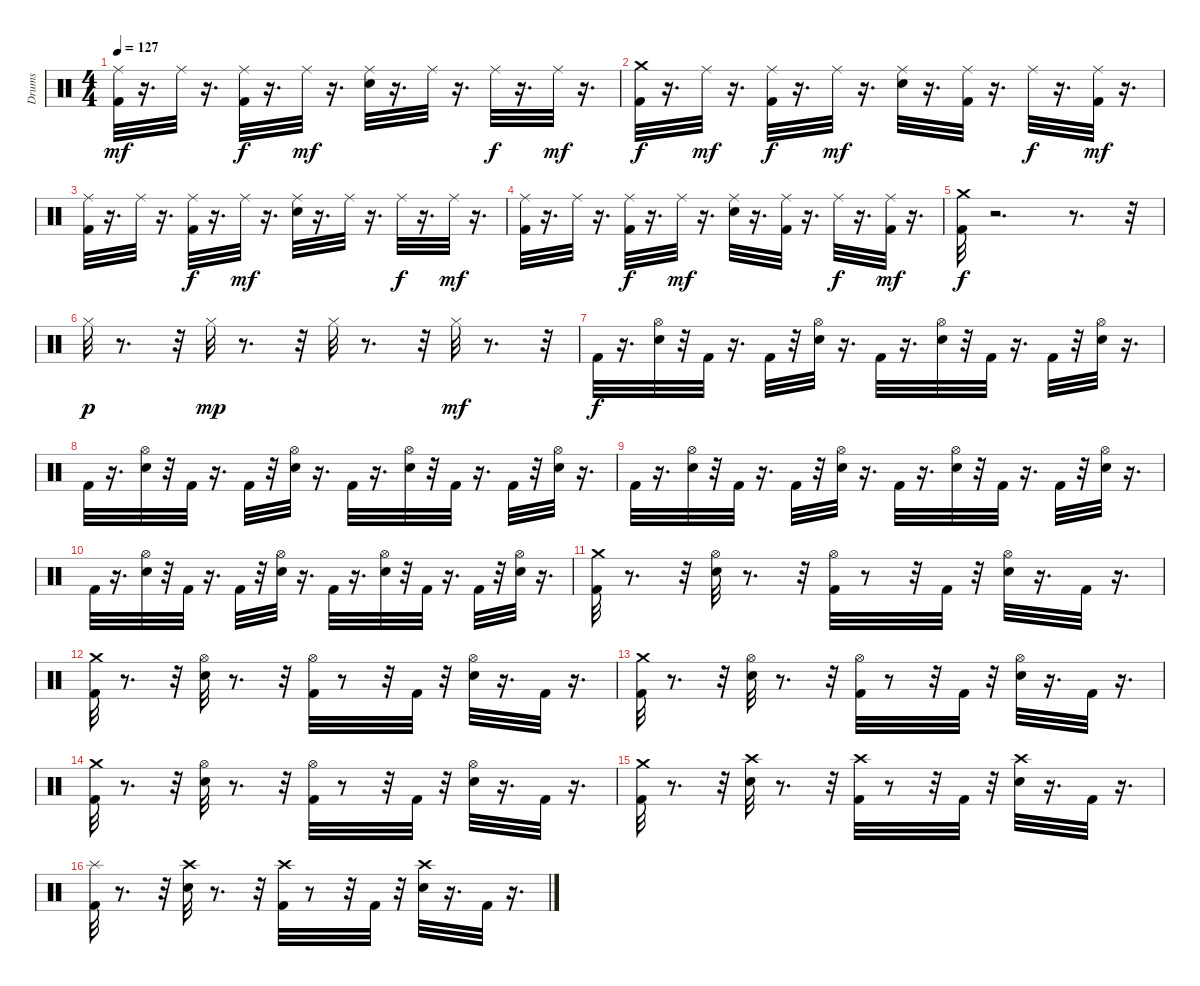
\track ("Drums" "Drums") {instrument percussion}
\staff {score}
\articulation defaults
\ts (4 4)
\tempo 127
\clef neutral
\ks c
("Ride (middle)" "Kick (hit) 2").32{dy mf} r.16{d} "Ride (middle)".32 r.16{d} ("Ride (middle)" "Kick (hit) 2").32{dy f} r.16{d} "Ride (middle)".32{dy mf} r.16{d} ("Ride (middle)" "Snare (hit) 2").32 r.16{d} "Ride (middle)".32 r.16{d} "Ride (middle)".32{dy f} r.16{d} "Ride (middle)".32{dy mf} r.16{d} |
("Kick (hit) 2" "Crash medium (hit)").32{dy f} r.16{d} "Ride (middle)".32{dy mf} r.16{d} ("Ride (middle)" "Kick (hit) 2").32{dy f} r.16{d} "Ride (middle)".32{dy mf} r.16{d} ("Ride (middle)" "Snare (hit) 2").32 r.16{d} ("Ride (middle)" "Kick (hit) 2").32 r.16{d} "Ride (middle)".32{dy f} r.16{d} ("Ride (middle)" "Kick (hit) 2").32{dy mf} r.16{d} |
("Ride (middle)" "Kick (hit) 2").32 r.16{d} "Ride (middle)".32 r.16{d} ("Ride (middle)" "Kick (hit) 2").32{dy f} r.16{d} "Ride (middle)".32{dy mf} r.16{d} ("Ride (middle)" "Snare (hit) 2").32 r.16{d} "Ride (middle)".32 r.16{d} "Ride (middle)".32{dy f} r.16{d} "Ride (middle)".32{dy mf} r.16{d} |
("Ride (middle)" "Kick (hit) 2").32 r.16{d} "Ride (middle)".32 r.16{d} ("Ride (middle)" "Kick (hit) 2").32{dy f} r.16{d} "Ride (middle)".32{dy mf} r.16{d} ("Ride (middle)" "Snare (hit) 2").32 r.16{d} ("Ride (middle)" "Kick (hit) 2").32 r.16{d} "Ride (middle)".32{dy f} r.16{d} ("Ride (middle)" "Kick (hit) 2").32{dy mf} r.16{d} |
("Kick (hit) 2" "Crash medium (hit)").32{dy f} r.2{d} r.8{d} r.32 |
"Hi-Hat (closed)".32{dy p} r.8{d} r.32 "Hi-Hat (closed)".32{dy mp} r.8{d} r.32 "Hi-Hat (closed)".32 r.8{d} r.32 "Hi-Hat (closed)".32{dy mf} r.8{d} r.32 |
"Kick (hit) 2".32{dy f} r.16{d} ("Snare (hit) 2" "Hi-Hat (open)").32 r.32 "Kick (hit) 2".32 r.16{d} "Kick (hit) 2".32 r.32 ("Snare (hit) 2" "Hi-Hat (open)").32 r.16{d} "Kick (hit) 2".32 r.16{d} ("Snare (hit) 2" "Hi-Hat (open)").32 r.32 "Kick (hit) 2".32 r.16{d} "Kick (hit) 2".32 r.32 ("Snare (hit) 2" "Hi-Hat (open)").32 r.16{d} |
"Kick (hit) 2".32 r.16{d} ("Snare (hit) 2" "Hi-Hat (open)").32 r.32 "Kick (hit) 2".32 r.16{d} "Kick (hit) 2".32 r.32 ("Snare (hit) 2" "Hi-Hat (open)").32 r.16{d} "Kick (hit) 2".32 r.16{d} ("Snare (hit) 2" "Hi-Hat (open)").32 r.32 "Kick (hit) 2".32 r.16{d} "Kick (hit) 2".32 r.32 ("Snare (hit) 2" "Hi-Hat (open)").32 r.16{d} |
"Kick (hit) 2".32 r.16{d} ("Snare (hit) 2" "Hi-Hat (open)").32 r.32 "Kick (hit) 2".32 r.16{d} "Kick (hit) 2".32 r.32 ("Snare (hit) 2" "Hi-Hat (open)").32 r.16{d} "Kick (hit) 2".32 r.16{d} ("Snare (hit) 2" "Hi-Hat (open)").32 r.32 "Kick (hit) 2".32 r.16{d} "Kick (hit) 2".32 r.32 ("Snare (hit) 2" "Hi-Hat (open)").32 r.16{d} |
"Kick (hit) 2".32 r.16{d} ("Snare (hit) 2" "Hi-Hat (open)").32 r.32 "Kick (hit) 2".32 r.16{d} "Kick (hit) 2".32 r.32 ("Snare (hit) 2" "Hi-Hat (open)").32 r.16{d} "Kick (hit) 2".32 r.16{d} ("Snare (hit) 2" "Hi-Hat (open)").32 r.32 "Kick (hit) 2".32 r.16{d} "Kick (hit) 2".32 r.32 ("Snare (hit) 2" "Hi-Hat (open)").32 r.16{d} |
("Kick (hit) 2" "Crash medium (hit)").32 r.8{d} r.32 ("Hi-Hat (open)" "Snare (hit) 2").32 r.8{d} r.32 ("Hi-Hat (open)" "Kick (hit) 2").32 r.8 r.32 "Kick (hit) 2".32 r.32 ("Hi-Hat (open)" "Snare (hit) 2").32 r.16{d} "Kick (hit) 2".32 r.16{d} |
("Kick (hit) 2" "Crash medium (hit)").32 r.8{d} r.32 ("Hi-Hat (open)" "Snare (hit) 2").32 r.8{d} r.32 ("Hi-Hat (open)" "Kick (hit) 2").32 r.8 r.32 "Kick (hit) 2".32 r.32 ("Hi-Hat (open)" "Snare (hit) 2").32 r.16{d} "Kick (hit) 2".32 r.16{d} |
("Kick (hit) 2" "Crash medium (hit)").32 r.8{d} r.32 ("Hi-Hat (open)" "Snare (hit) 2").32 r.8{d} r.32 ("Hi-Hat (open)" "Kick (hit) 2").32 r.8 r.32 "Kick (hit) 2".32 r.32 ("Hi-Hat (open)" "Snare (hit) 2").32 r.16{d} "Kick (hit) 2".32 r.16{d} |
("Kick (hit) 2" "Crash medium (hit)").32 r.8{d} r.32 ("Snare (hit) 2" "Hi-Hat (open)").32 r.8{d} r.32 ("Kick (hit) 2" "Hi-Hat (open)").32 r.8 r.32 "Kick (hit) 2".32 r.32 ("Snare (hit) 2" "Hi-Hat (open)").32 r.16{d} "Kick (hit) 2".32 r.16{d} |
("Kick (hit) 2" "Crash medium (hit)").32 r.8{d} r.32 ("Snare (hit) 2" "Crash high (hit)").32 r.8{d} r.32 ("Kick (hit) 2" "Crash high (hit)").32 r.8 r.32 "Kick (hit) 2".32 r.32 ("Snare (hit) 2" "Crash high (hit)").32 r.16{d} "Kick (hit) 2".32 r.16{d} |
("Kick (hit) 2" "Splash (hit)").32 r.8{d} r.32 ("Snare (hit) 2" "Crash high (hit)").32 r.8{d} r.32 ("Kick (hit) 2" "Crash high (hit)").32 r.8 r.32 "Kick (hit) 2".32 r.32 ("Snare (hit) 2" "Crash high (hit)").32 r.16{d} "Kick (hit) 2".32 r.16{d}
